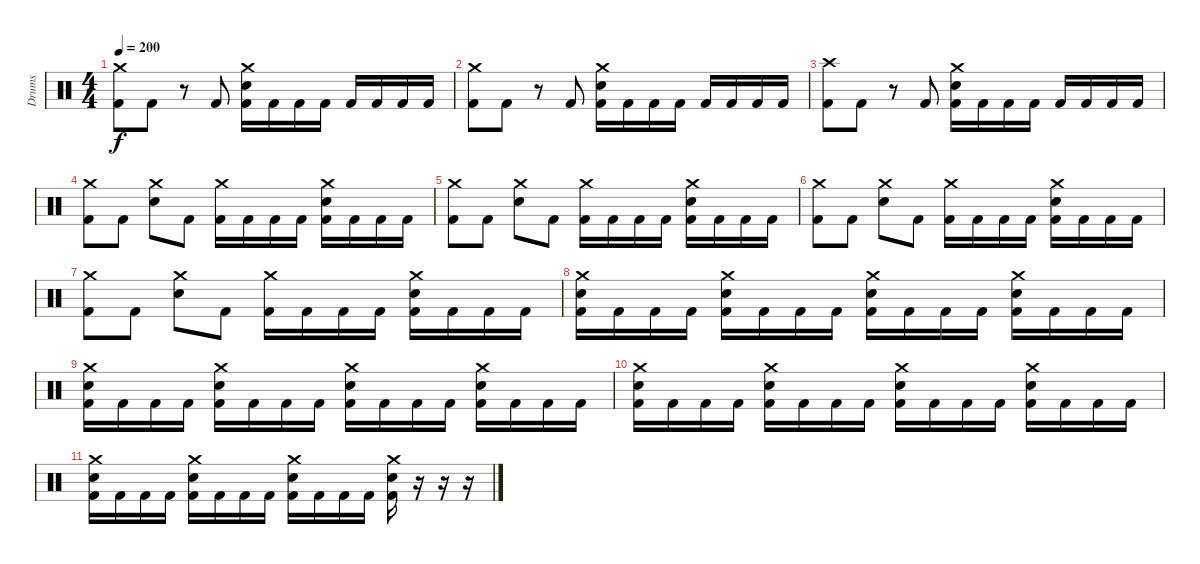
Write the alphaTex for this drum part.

\track ("Drums" "Drums") {instrument percussion}
\staff {score}
\articulation defaults
\ts (4 4)
\tempo 200
\clef neutral
\ks c
("Crash medium (hit)" "Kick (hit) 2").8{dy f} "Kick (hit) 2".8 r.8 "Kick (hit) 2".8 ("Crash medium (hit)" "Electric Snare (hit)" "Kick (hit) 2").16 "Kick (hit) 2".16 "Kick (hit) 2".16 "Kick (hit) 2".16 "Kick (hit) 2".16 "Kick (hit) 2".16 "Kick (hit) 2".16 "Kick (hit) 2".16 |
("Crash medium (hit)" "Kick (hit) 2").8 "Kick (hit) 2".8 r.8 "Kick (hit) 2".8 ("Crash medium (hit)" "Electric Snare (hit)" "Kick (hit) 2").16 "Kick (hit) 2".16 "Kick (hit) 2".16 "Kick (hit) 2".16 "Kick (hit) 2".16 "Kick (hit) 2".16 "Kick (hit) 2".16 "Kick (hit) 2".16 |
("Crash high (hit)" "Kick (hit) 2").8 "Kick (hit) 2".8 r.8 "Kick (hit) 2".8 ("Crash medium (hit)" "Electric Snare (hit)" "Kick (hit) 2").16 "Kick (hit) 2".16 "Kick (hit) 2".16 "Kick (hit) 2".16 "Kick (hit) 2".16 "Kick (hit) 2".16 "Kick (hit) 2".16 "Kick (hit) 2".16 |
("Crash medium (hit)" "Kick (hit) 2").8 "Kick (hit) 2".8 ("Crash medium (hit)" "Electric Snare (hit)").8 "Kick (hit) 2".8 ("Crash medium (hit)" "Kick (hit) 2").16 "Kick (hit) 2".16 "Kick (hit) 2".16 "Kick (hit) 2".16 ("Crash medium (hit)" "Electric Snare (hit)" "Kick (hit) 2").16 "Kick (hit) 2".16 "Kick (hit) 2".16 "Kick (hit) 2".16 |
("Crash medium (hit)" "Kick (hit) 2").8 "Kick (hit) 2".8 ("Crash medium (hit)" "Electric Snare (hit)").8 "Kick (hit) 2".8 ("Crash medium (hit)" "Kick (hit) 2").16 "Kick (hit) 2".16 "Kick (hit) 2".16 "Kick (hit) 2".16 ("Crash medium (hit)" "Electric Snare (hit)" "Kick (hit) 2").16 "Kick (hit) 2".16 "Kick (hit) 2".16 "Kick (hit) 2".16 |
("Crash medium (hit)" "Kick (hit) 2").8 "Kick (hit) 2".8 ("Crash medium (hit)" "Electric Snare (hit)").8 "Kick (hit) 2".8 ("Crash medium (hit)" "Kick (hit) 2").16 "Kick (hit) 2".16 "Kick (hit) 2".16 "Kick (hit) 2".16 ("Crash medium (hit)" "Electric Snare (hit)" "Kick (hit) 2").16 "Kick (hit) 2".16 "Kick (hit) 2".16 "Kick (hit) 2".16 |
("Crash medium (hit)" "Kick (hit) 2").8 "Kick (hit) 2".8 ("Crash medium (hit)" "Electric Snare (hit)").8 "Kick (hit) 2".8 ("Crash medium (hit)" "Kick (hit) 2").16 "Kick (hit) 2".16 "Kick (hit) 2".16 "Kick (hit) 2".16 ("Crash medium (hit)" "Electric Snare (hit)" "Kick (hit) 2").16 "Kick (hit) 2".16 "Kick (hit) 2".16 "Kick (hit) 2".16 |
("Crash medium (hit)" "Electric Snare (hit)" "Kick (hit) 2").16 "Kick (hit) 2".16 "Kick (hit) 2".16 "Kick (hit) 2".16 ("Crash medium (hit)" "Electric Snare (hit)" "Kick (hit) 2").16 "Kick (hit) 2".16 "Kick (hit) 2".16 "Kick (hit) 2".16 ("Crash medium (hit)" "Electric Snare (hit)" "Kick (hit) 2").16 "Kick (hit) 2".16 "Kick (hit) 2".16 "Kick (hit) 2".16 ("Crash medium (hit)" "Electric Snare (hit)" "Kick (hit) 2").16 "Kick (hit) 2".16 "Kick (hit) 2".16 "Kick (hit) 2".16 |
("Crash medium (hit)" "Electric Snare (hit)" "Kick (hit) 2").16 "Kick (hit) 2".16 "Kick (hit) 2".16 "Kick (hit) 2".16 ("Crash medium (hit)" "Electric Snare (hit)" "Kick (hit) 2").16 "Kick (hit) 2".16 "Kick (hit) 2".16 "Kick (hit) 2".16 ("Crash medium (hit)" "Electric Snare (hit)" "Kick (hit) 2").16 "Kick (hit) 2".16 "Kick (hit) 2".16 "Kick (hit) 2".16 ("Crash medium (hit)" "Electric Snare (hit)" "Kick (hit) 2").16 "Kick (hit) 2".16 "Kick (hit) 2".16 "Kick (hit) 2".16 |
("Crash medium (hit)" "Electric Snare (hit)" "Kick (hit) 2").16 "Kick (hit) 2".16 "Kick (hit) 2".16 "Kick (hit) 2".16 ("Crash medium (hit)" "Electric Snare (hit)" "Kick (hit) 2").16 "Kick (hit) 2".16 "Kick (hit) 2".16 "Kick (hit) 2".16 ("Crash medium (hit)" "Electric Snare (hit)" "Kick (hit) 2").16 "Kick (hit) 2".16 "Kick (hit) 2".16 "Kick (hit) 2".16 ("Crash medium (hit)" "Electric Snare (hit)" "Kick (hit) 2").16 "Kick (hit) 2".16 "Kick (hit) 2".16 "Kick (hit) 2".16 |
("Crash medium (hit)" "Electric Snare (hit)" "Kick (hit) 2").16 "Kick (hit) 2".16 "Kick (hit) 2".16 "Kick (hit) 2".16 ("Crash medium (hit)" "Electric Snare (hit)" "Kick (hit) 2").16 "Kick (hit) 2".16 "Kick (hit) 2".16 "Kick (hit) 2".16 ("Crash medium (hit)" "Electric Snare (hit)" "Kick (hit) 2").16 "Kick (hit) 2".16 "Kick (hit) 2".16 "Kick (hit) 2".16 ("Crash medium (hit)" "Electric Snare (hit)" "Kick (hit) 2").16 r.16 r.16 r.16
